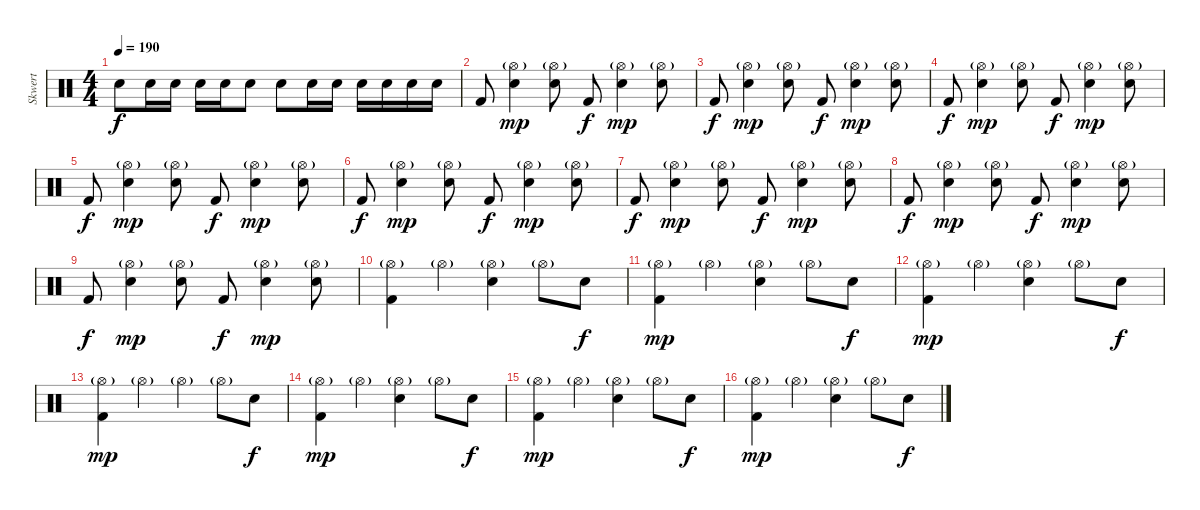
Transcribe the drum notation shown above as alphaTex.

\track ("Skwert" "Skwert") {instrument percussion}
\staff {score}
\articulation defaults
\ts (4 4)
\tempo 190
\clef neutral
\ks c "Electric Snare (hit)".8{dy f} "Electric Snare (hit)".16 "Electric Snare (hit)".16 "Electric Snare (hit)".16 "Electric Snare (hit)".16 "Electric Snare (hit)".8 "Electric Snare (hit)".8 "Electric Snare (hit)".16 "Electric Snare (hit)".16 "Electric Snare (hit)".16 "Electric Snare (hit)".16 "Electric Snare (hit)".16 "Electric Snare (hit)".16
|
"Kick (hit) 2".8 ("Hi-Hat (open)"{g} "Electric Snare (hit)").4{dy mp} ("Hi-Hat (open)"{g} "Electric Snare (hit)").8 "Kick (hit) 2".8{dy f} ("Hi-Hat (open)"{g} "Electric Snare (hit)").4{dy mp} ("Hi-Hat (open)"{g} "Electric Snare (hit)").8 |
"Kick (hit) 2".8{dy f} ("Hi-Hat (open)"{g} "Electric Snare (hit)").4{dy mp} ("Hi-Hat (open)"{g} "Electric Snare (hit)").8 "Kick (hit) 2".8{dy f} ("Hi-Hat (open)"{g} "Electric Snare (hit)").4{dy mp} ("Hi-Hat (open)"{g} "Electric Snare (hit)").8 |
"Kick (hit) 2".8{dy f} ("Hi-Hat (open)"{g} "Electric Snare (hit)").4{dy mp} ("Hi-Hat (open)"{g} "Electric Snare (hit)").8 "Kick (hit) 2".8{dy f} ("Hi-Hat (open)"{g} "Electric Snare (hit)").4{dy mp} ("Hi-Hat (open)"{g} "Electric Snare (hit)").8 |
"Kick (hit) 2".8{dy f} ("Hi-Hat (open)"{g} "Electric Snare (hit)").4{dy mp} ("Hi-Hat (open)"{g} "Electric Snare (hit)").8 "Kick (hit) 2".8{dy f} ("Hi-Hat (open)"{g} "Electric Snare (hit)").4{dy mp} ("Hi-Hat (open)"{g} "Electric Snare (hit)").8 |
"Kick (hit) 2".8{dy f} ("Hi-Hat (open)"{g} "Electric Snare (hit)").4{dy mp} ("Hi-Hat (open)"{g} "Electric Snare (hit)").8 "Kick (hit) 2".8{dy f} ("Hi-Hat (open)"{g} "Electric Snare (hit)").4{dy mp} ("Hi-Hat (open)"{g} "Electric Snare (hit)").8 |
"Kick (hit) 2".8{dy f} ("Hi-Hat (open)"{g} "Electric Snare (hit)").4{dy mp} ("Hi-Hat (open)"{g} "Electric Snare (hit)").8 "Kick (hit) 2".8{dy f} ("Hi-Hat (open)"{g} "Electric Snare (hit)").4{dy mp} ("Hi-Hat (open)"{g} "Electric Snare (hit)").8 |
"Kick (hit) 2".8{dy f} ("Hi-Hat (open)"{g} "Electric Snare (hit)").4{dy mp} ("Hi-Hat (open)"{g} "Electric Snare (hit)").8 "Kick (hit) 2".8{dy f} ("Hi-Hat (open)"{g} "Electric Snare (hit)").4{dy mp} ("Hi-Hat (open)"{g} "Electric Snare (hit)").8 |
"Kick (hit) 2".8{dy f} ("Hi-Hat (open)"{g} "Electric Snare (hit)").4{dy mp} ("Hi-Hat (open)"{g} "Electric Snare (hit)").8 "Kick (hit) 2".8{dy f} ("Hi-Hat (open)"{g} "Electric Snare (hit)").4{dy mp} ("Hi-Hat (open)"{g} "Electric Snare (hit)").8 |
("Hi-Hat (open)"{g} "Kick (hit) 2").4 "Hi-Hat (open)"{g}.4 ("Hi-Hat (open)"{g} "Electric Snare (hit)").4 "Hi-Hat (open)"{g}.8 "Electric Snare (hit)".8{dy f} |
("Hi-Hat (open)"{g} "Kick (hit) 2").4{dy mp} "Hi-Hat (open)"{g}.4 ("Hi-Hat (open)"{g} "Electric Snare (hit)").4 "Hi-Hat (open)"{g}.8 "Electric Snare (hit)".8{dy f} |
("Hi-Hat (open)"{g} "Kick (hit) 2").4{dy mp} "Hi-Hat (open)"{g}.4 ("Hi-Hat (open)"{g} "Electric Snare (hit)").4 "Hi-Hat (open)"{g}.8 "Electric Snare (hit)".8{dy f} |
("Hi-Hat (open)"{g} "Kick (hit) 2").4{dy mp} "Hi-Hat (open)"{g}.4 "Hi-Hat (open)"{g}.4 "Hi-Hat (open)"{g}.8 "Electric Snare (hit)".8{dy f} |
("Hi-Hat (open)"{g} "Kick (hit) 2").4{dy mp} "Hi-Hat (open)"{g}.4 ("Hi-Hat (open)"{g} "Electric Snare (hit)").4 "Hi-Hat (open)"{g}.8 "Electric Snare (hit)".8{dy f} |
("Hi-Hat (open)"{g} "Kick (hit) 2").4{dy mp} "Hi-Hat (open)"{g}.4 ("Hi-Hat (open)"{g} "Electric Snare (hit)").4 "Hi-Hat (open)"{g}.8 "Electric Snare (hit)".8{dy f} |
("Hi-Hat (open)"{g} "Kick (hit) 2").4{dy mp} "Hi-Hat (open)"{g}.4 ("Hi-Hat (open)"{g} "Electric Snare (hit)").4 "Hi-Hat (open)"{g}.8 "Electric Snare (hit)".8{dy f}
